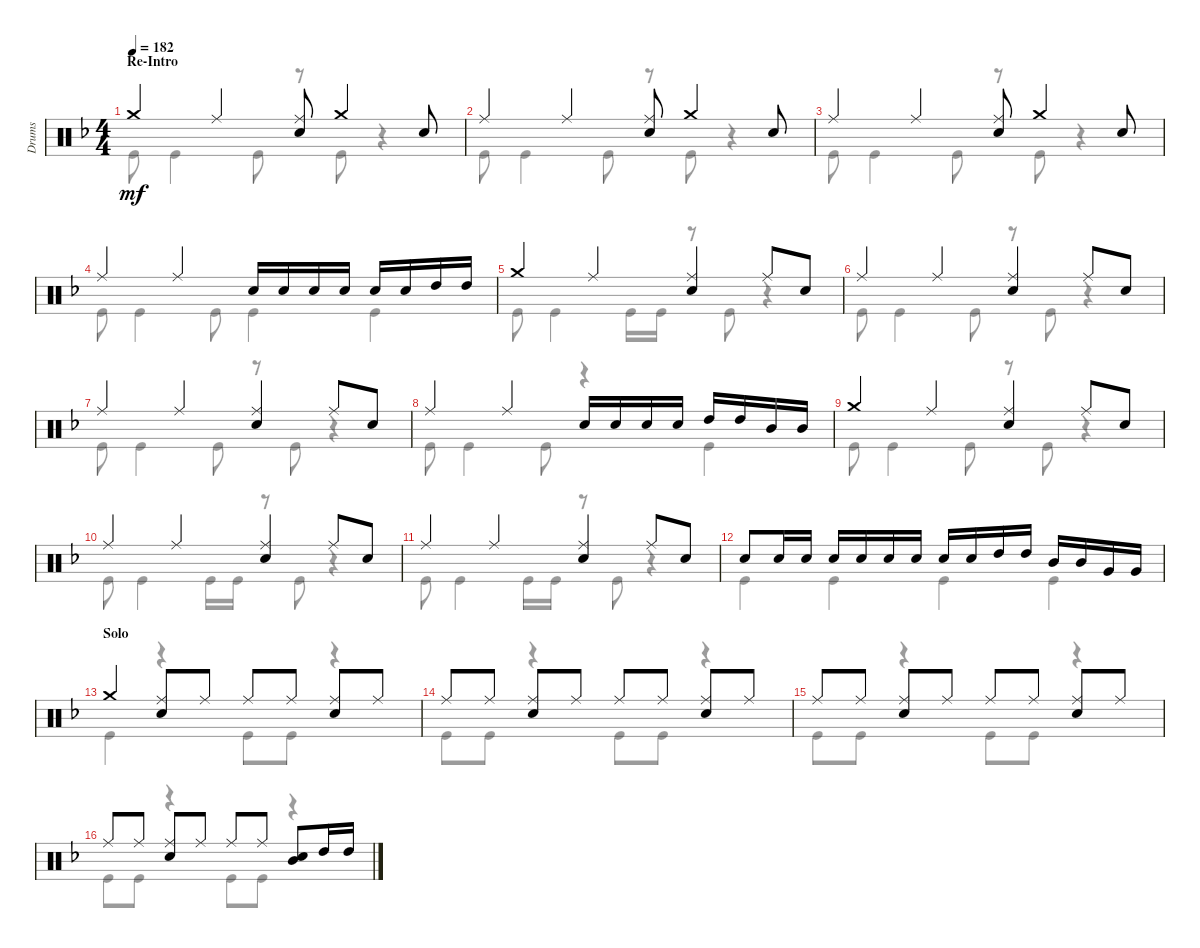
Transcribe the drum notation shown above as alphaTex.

\track ("Drums" "Drums") {instrument percussion}
\staff {score}
\articulation defaults
\voice
\ts (4 4)
\section ("" "Re-Intro")
\tempo 182
\clef neutral
\ks f "Crash medium (hit)".4{dy mf} "Ride (middle)".4
("Ride (middle)" "Snare (hit) 2").8 "Crash medium (hit)".4 "Snare (hit) 2".8 |
"Ride (middle)".4 "Ride (middle)".4 ("Ride (middle)" "Snare (hit) 2").8 "Crash medium (hit)".4 "Snare (hit) 2".8 |
"Ride (middle)".4 "Ride (middle)".4 ("Ride (middle)" "Snare (hit) 2").8 "Crash medium (hit)".4 "Snare (hit) 2".8 |
"Ride (middle)".4 "Ride (middle)".4 "Snare (hit) 2".16 "Snare (hit) 2".16 "Snare (hit) 2".16 "Snare (hit) 2".16 "Snare (hit) 2".16 "Snare (hit) 2".16 "High Tom (hit)".16 "High Tom (hit)".16 |
"Crash medium (hit)".4 "Ride (middle)".4 ("Ride (middle)" "Snare (hit) 2").4 "Ride (middle)".8 "Snare (hit) 2".8 |
"Ride (middle)".4 "Ride (middle)".4 ("Ride (middle)" "Snare (hit) 2").4 "Ride (middle)".8 "Snare (hit) 2".8 |
"Ride (middle)".4 "Ride (middle)".4 ("Ride (middle)" "Snare (hit) 2").4 "Ride (middle)".8 "Snare (hit) 2".8 |
"Ride (middle)".4 "Ride (middle)".4 "Snare (hit) 2".16 "Snare (hit) 2".16 "Snare (hit) 2".16 "Snare (hit) 2".16 "High Tom (hit)".16 "High Tom (hit)".16 "Mid Tom (hit)".16 "Mid Tom (hit)".16 |
"Crash medium (hit)".4 "Ride (middle)".4 ("Ride (middle)" "Snare (hit) 2").4 "Ride (middle)".8 "Snare (hit) 2".8 |
"Ride (middle)".4 "Ride (middle)".4 ("Ride (middle)" "Snare (hit) 2").4 "Ride (middle)".8 "Snare (hit) 2".8 |
"Ride (middle)".4 "Ride (middle)".4 ("Ride (middle)" "Snare (hit) 2").4 "Ride (middle)".8 "Snare (hit) 2".8 |
"Snare (hit) 2".8 "Snare (hit) 2".16 "Snare (hit) 2".16 "Snare (hit) 2".16 "Snare (hit) 2".16 "Snare (hit) 2".16 "Snare (hit) 2".16 "Snare (hit) 2".16 "Snare (hit) 2".16 "High Tom (hit)".16 "High Tom (hit)".16 "Mid Tom (hit)".16 "Mid Tom (hit)".16 "Very Low Tom (hit)".16 "Very Low Tom (hit)".16 |
\section ("" "Solo")
"Crash medium (hit)".4 ("Ride (middle)" "Snare (hit) 2").8 "Ride (middle)".8 "Ride (middle)".8 "Ride (middle)".8 ("Ride (middle)" "Snare (hit) 2").8 "Ride (middle)".8 |
"Ride (middle)".8 "Ride (middle)".8 ("Ride (middle)" "Snare (hit) 2").8 "Ride (middle)".8 "Ride (middle)".8 "Ride (middle)".8 ("Ride (middle)" "Snare (hit) 2").8 "Ride (middle)".8 |
"Ride (middle)".8 "Ride (middle)".8 ("Ride (middle)" "Snare (hit) 2").8 "Ride (middle)".8 "Ride (middle)".8 "Ride (middle)".8 ("Ride (middle)" "Snare (hit) 2").8 "Ride (middle)".8 |
"Ride (middle)".8 "Ride (middle)".8 ("Ride (middle)" "Snare (hit) 2").8 "Ride (middle)".8 "Ride (middle)".8 "Ride (middle)".8 ("Mid Tom (hit)" "Snare (hit) 2").8 "High Tom (hit)".16 "High Tom (hit)".16
\voice
\clef neutral
\ottava regular
\simile none
\ks f "Kick (hit)".8{dy mf} "Kick (hit)".4 "Kick (hit)".8
r.8 "Kick (hit)".8 r.4 |
"Kick (hit)".8 "Kick (hit)".4 "Kick (hit)".8 r.8 "Kick (hit)".8 r.4 |
"Kick (hit)".8 "Kick (hit)".4 "Kick (hit)".8 r.8 "Kick (hit)".8 r.4 |
"Kick (hit)".8 "Kick (hit)".4 "Kick (hit)".8 "Kick (hit)".4 "Kick (hit)".4 |
"Kick (hit)".8 "Kick (hit)".4 "Kick (hit)".16 "Kick (hit)".16 r.8 "Kick (hit)".8 r.4 |
"Kick (hit)".8 "Kick (hit)".4 "Kick (hit)".8 r.8 "Kick (hit)".8 r.4 |
"Kick (hit)".8 "Kick (hit)".4 "Kick (hit)".8 r.8 "Kick (hit)".8 r.4 |
"Kick (hit)".8 "Kick (hit)".4 "Kick (hit)".8 r.4 "Kick (hit)".4 |
"Kick (hit)".8 "Kick (hit)".4 "Kick (hit)".8 r.8 "Kick (hit)".8 r.4 |
"Kick (hit)".8 "Kick (hit)".4 "Kick (hit)".16 "Kick (hit)".16 r.8 "Kick (hit)".8 r.4 |
"Kick (hit)".8 "Kick (hit)".4 "Kick (hit)".16 "Kick (hit)".16 r.8 "Kick (hit)".8 r.4 |
"Kick (hit)".4 "Kick (hit)".4 "Kick (hit)".4 "Kick (hit)".4 |
"Kick (hit)".4 r.4 "Kick (hit)".8 "Kick (hit)".8 r.4 |
"Kick (hit)".8 "Kick (hit)".8 r.4 "Kick (hit)".8 "Kick (hit)".8 r.4 |
"Kick (hit)".8 "Kick (hit)".8 r.4 "Kick (hit)".8 "Kick (hit)".8 r.4 |
"Kick (hit)".8 "Kick (hit)".8 r.4 "Kick (hit)".8 "Kick (hit)".8 r.4
